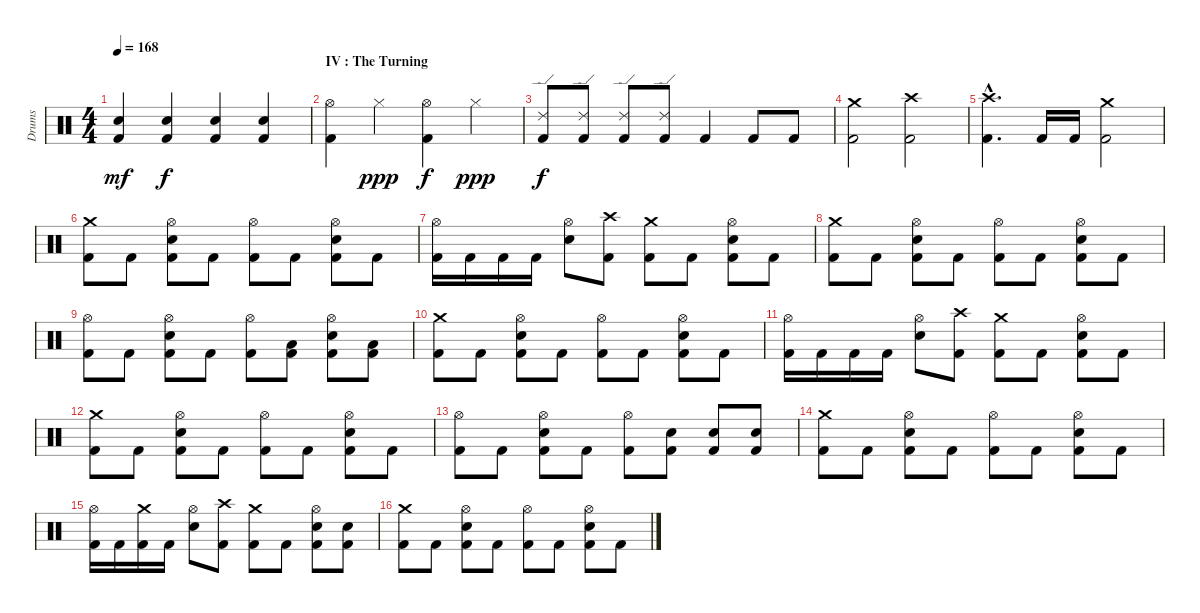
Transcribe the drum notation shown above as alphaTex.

\track ("Drums" "Drums") {instrument percussion}
\staff {score}
\articulation defaults
\ts (4 4)
\tempo 168
\clef neutral
\ks c
("Kick (hit) 2" "Electric Snare (hit)").4{dy mf} ("Kick (hit) 2" "Electric Snare (hit)").4{dy f} ("Kick (hit) 2" "Electric Snare (hit)").4 ("Kick (hit) 2" "Electric Snare (hit)").4 |
\section ("" "IV : The Turning")
("Kick (hit) 2" "Hi-Hat (open)").4 "Hi-Hat (closed)".4{dy ppp} ("Kick (hit) 2" "Hi-Hat (open)").4{dy f} "Hi-Hat (closed)".4{dy ppp} |
("Kick (hit) 2" "Ride (edge) 2").8{dy f} ("Kick (hit) 2" "Ride (edge) 2").8 ("Kick (hit) 2" "Ride (edge) 2").8 ("Kick (hit) 2" "Ride (edge) 2").8 "Kick (hit) 2".4 "Kick (hit) 2".8 "Kick (hit) 2".8 |
("Kick (hit) 2" "Crash medium (hit)").2 ("Kick (hit) 2" "Crash high (hit)").2 |
("Kick (hit) 2"{hac} "Crash high (hit)"{hac}).4{d} "Kick (hit) 2".16 "Kick (hit) 2".16 ("Kick (hit) 2" "Crash medium (hit)").2 |
("Kick (hit) 2" "Crash medium (hit)").8 "Kick (hit) 2".8 ("Kick (hit) 2" "Electric Snare (hit)" "Hi-Hat (open)").8 "Kick (hit) 2".8 ("Kick (hit) 2" "Hi-Hat (open)").8 "Kick (hit) 2".8 ("Kick (hit) 2" "Electric Snare (hit)" "Hi-Hat (open)").8 "Kick (hit) 2".8 |
("Kick (hit) 2" "Hi-Hat (open)").16 "Kick (hit) 2".16 "Kick (hit) 2".16 "Kick (hit) 2".16 ("Electric Snare (hit)" "Hi-Hat (open)").8 ("Kick (hit) 2" "Crash high (hit)").8 ("Kick (hit) 2" "Crash medium (hit)").8 "Kick (hit) 2".8 ("Kick (hit) 2" "Electric Snare (hit)" "Hi-Hat (open)").8 "Kick (hit) 2".8 |
("Kick (hit) 2" "Crash medium (hit)").8 "Kick (hit) 2".8 ("Kick (hit) 2" "Electric Snare (hit)" "Hi-Hat (open)").8 "Kick (hit) 2".8 ("Kick (hit) 2" "Hi-Hat (open)").8 "Kick (hit) 2".8 ("Kick (hit) 2" "Electric Snare (hit)" "Hi-Hat (open)").8 "Kick (hit) 2".8 |
("Kick (hit) 2" "Hi-Hat (open)").8 "Kick (hit) 2".8 ("Kick (hit) 2" "Electric Snare (hit)" "Hi-Hat (open)").8 "Kick (hit) 2".8 ("Kick (hit) 2" "Hi-Hat (open)").8 ("Kick (hit) 2" "Low Tom (hit)").8 ("Kick (hit) 2" "Electric Snare (hit)" "Hi-Hat (open)").8 ("Kick (hit) 2" "Low Tom (hit)").8 |
\section ("" "")
("Kick (hit) 2" "Crash medium (hit)").8 "Kick (hit) 2".8 ("Kick (hit) 2" "Electric Snare (hit)" "Hi-Hat (open)").8 "Kick (hit) 2".8 ("Kick (hit) 2" "Hi-Hat (open)").8 "Kick (hit) 2".8 ("Kick (hit) 2" "Electric Snare (hit)" "Hi-Hat (open)").8 "Kick (hit) 2".8 |
("Kick (hit) 2" "Hi-Hat (open)").16 "Kick (hit) 2".16 "Kick (hit) 2".16 "Kick (hit) 2".16 ("Electric Snare (hit)" "Hi-Hat (open)").8 ("Kick (hit) 2" "Crash high (hit)").8 ("Kick (hit) 2" "Crash medium (hit)").8 "Kick (hit) 2".8 ("Kick (hit) 2" "Electric Snare (hit)" "Hi-Hat (open)").8 "Kick (hit) 2".8 |
("Kick (hit) 2" "Crash medium (hit)").8 "Kick (hit) 2".8 ("Kick (hit) 2" "Electric Snare (hit)" "Hi-Hat (open)").8 "Kick (hit) 2".8 ("Kick (hit) 2" "Hi-Hat (open)").8 "Kick (hit) 2".8 ("Kick (hit) 2" "Electric Snare (hit)" "Hi-Hat (open)").8 "Kick (hit) 2".8 |
("Kick (hit) 2" "Hi-Hat (open)").8 "Kick (hit) 2".8 ("Kick (hit) 2" "Electric Snare (hit)" "Hi-Hat (open)").8 "Kick (hit) 2".8 ("Kick (hit) 2" "Hi-Hat (open)").8 ("Kick (hit) 2" "Electric Snare (hit)").8 ("Kick (hit) 2" "Electric Snare (hit)").8 ("Kick (hit) 2" "Electric Snare (hit)").8 |
\section ("" "")
("Kick (hit) 2" "Crash medium (hit)").8 "Kick (hit) 2".8 ("Kick (hit) 2" "Electric Snare (hit)" "Hi-Hat (open)").8 "Kick (hit) 2".8 ("Kick (hit) 2" "Hi-Hat (open)").8 "Kick (hit) 2".8 ("Kick (hit) 2" "Electric Snare (hit)" "Hi-Hat (open)").8 "Kick (hit) 2".8 |
("Kick (hit) 2" "Hi-Hat (open)").16 "Kick (hit) 2".16 ("Kick (hit) 2" "Crash medium (hit)").16 "Kick (hit) 2".16 ("Electric Snare (hit)" "Hi-Hat (open)").8 ("Kick (hit) 2" "Crash high (hit)").8 ("Kick (hit) 2" "Crash medium (hit)").8 "Kick (hit) 2".8 ("Kick (hit) 2" "Electric Snare (hit)" "Hi-Hat (open)").8 ("Kick (hit) 2" "Electric Snare (hit)").8 |
("Kick (hit) 2" "Crash medium (hit)").8 "Kick (hit) 2".8 ("Kick (hit) 2" "Electric Snare (hit)" "Hi-Hat (open)").8 "Kick (hit) 2".8 ("Kick (hit) 2" "Hi-Hat (open)").8 "Kick (hit) 2".8 ("Kick (hit) 2" "Electric Snare (hit)" "Hi-Hat (open)").8 "Kick (hit) 2".8
